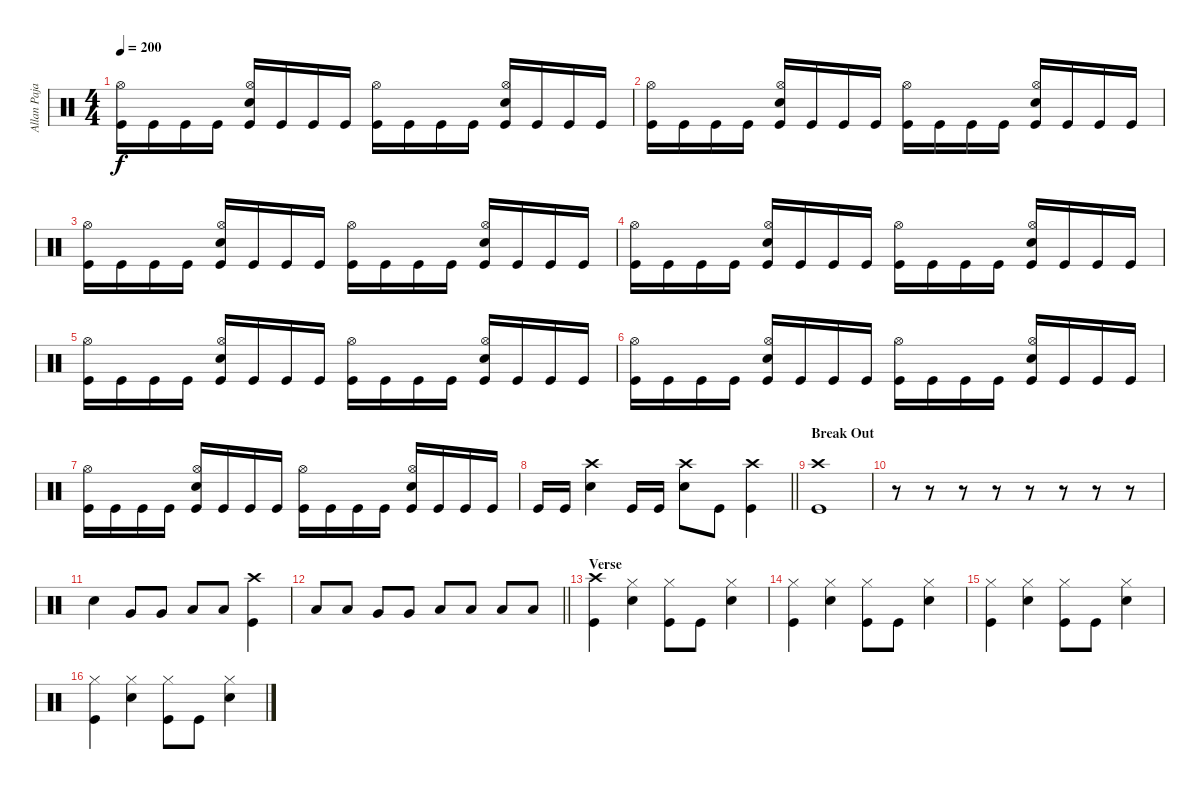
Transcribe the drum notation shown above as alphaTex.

\track ("Allan Pajarin (Drums)" "Allan Paja") {instrument percussion}
\staff {score}
\articulation defaults
\ts (4 4)
\tempo 200
\clef neutral
\ks c
("Kick (hit)" "Hi-Hat (open)").16{dy f} "Kick (hit)".16 "Kick (hit)".16 "Kick (hit)".16 ("Hi-Hat (open)" "Electric Snare (hit)" "Kick (hit)").16 "Kick (hit)".16 "Kick (hit)".16 "Kick (hit)".16 ("Hi-Hat (open)" "Kick (hit)").16 "Kick (hit)".16 "Kick (hit)".16 "Kick (hit)".16 ("Hi-Hat (open)" "Electric Snare (hit)" "Kick (hit)").16 "Kick (hit)".16 "Kick (hit)".16 "Kick (hit)".16 |
("Kick (hit)" "Hi-Hat (open)").16 "Kick (hit)".16 "Kick (hit)".16 "Kick (hit)".16 ("Hi-Hat (open)" "Electric Snare (hit)" "Kick (hit)").16 "Kick (hit)".16 "Kick (hit)".16 "Kick (hit)".16 ("Hi-Hat (open)" "Kick (hit)").16 "Kick (hit)".16 "Kick (hit)".16 "Kick (hit)".16 ("Hi-Hat (open)" "Electric Snare (hit)" "Kick (hit)").16 "Kick (hit)".16 "Kick (hit)".16 "Kick (hit)".16 |
("Kick (hit)" "Hi-Hat (open)").16 "Kick (hit)".16 "Kick (hit)".16 "Kick (hit)".16 ("Hi-Hat (open)" "Electric Snare (hit)" "Kick (hit)").16 "Kick (hit)".16 "Kick (hit)".16 "Kick (hit)".16 ("Hi-Hat (open)" "Kick (hit)").16 "Kick (hit)".16 "Kick (hit)".16 "Kick (hit)".16 ("Hi-Hat (open)" "Electric Snare (hit)" "Kick (hit)").16 "Kick (hit)".16 "Kick (hit)".16 "Kick (hit)".16 |
("Kick (hit)" "Hi-Hat (open)").16 "Kick (hit)".16 "Kick (hit)".16 "Kick (hit)".16 ("Hi-Hat (open)" "Electric Snare (hit)" "Kick (hit)").16 "Kick (hit)".16 "Kick (hit)".16 "Kick (hit)".16 ("Hi-Hat (open)" "Kick (hit)").16 "Kick (hit)".16 "Kick (hit)".16 "Kick (hit)".16 ("Hi-Hat (open)" "Electric Snare (hit)" "Kick (hit)").16 "Kick (hit)".16 "Kick (hit)".16 "Kick (hit)".16 |
("Kick (hit)" "Hi-Hat (open)").16 "Kick (hit)".16 "Kick (hit)".16 "Kick (hit)".16 ("Hi-Hat (open)" "Electric Snare (hit)" "Kick (hit)").16 "Kick (hit)".16 "Kick (hit)".16 "Kick (hit)".16 ("Hi-Hat (open)" "Kick (hit)").16 "Kick (hit)".16 "Kick (hit)".16 "Kick (hit)".16 ("Hi-Hat (open)" "Electric Snare (hit)" "Kick (hit)").16 "Kick (hit)".16 "Kick (hit)".16 "Kick (hit)".16 |
("Kick (hit)" "Hi-Hat (open)").16 "Kick (hit)".16 "Kick (hit)".16 "Kick (hit)".16 ("Hi-Hat (open)" "Electric Snare (hit)" "Kick (hit)").16 "Kick (hit)".16 "Kick (hit)".16 "Kick (hit)".16 ("Hi-Hat (open)" "Kick (hit)").16 "Kick (hit)".16 "Kick (hit)".16 "Kick (hit)".16 ("Hi-Hat (open)" "Electric Snare (hit)" "Kick (hit)").16 "Kick (hit)".16 "Kick (hit)".16 "Kick (hit)".16 |
("Kick (hit)" "Hi-Hat (open)").16 "Kick (hit)".16 "Kick (hit)".16 "Kick (hit)".16 ("Hi-Hat (open)" "Electric Snare (hit)" "Kick (hit)").16 "Kick (hit)".16 "Kick (hit)".16 "Kick (hit)".16 ("Hi-Hat (open)" "Kick (hit)").16 "Kick (hit)".16 "Kick (hit)".16 "Kick (hit)".16 ("Hi-Hat (open)" "Electric Snare (hit)" "Kick (hit)").16 "Kick (hit)".16 "Kick (hit)".16 "Kick (hit)".16 |
\barLineRight lightlight "Kick (hit)".16 "Kick (hit)".16
("Crash high (hit)" "Electric Snare (hit)").4 "Kick (hit)".16 "Kick (hit)".16 ("Crash high (hit)" "Electric Snare (hit)").8 "Kick (hit)".8 ("Crash high (hit)" "Kick (hit)").4 |
\section ("" "Break Out")
("Crash high (hit)" "Kick (hit)").1 |
r.8 r.8 r.8 r.8 r.8 r.8 r.8 r.8 |
"Electric Snare (hit)".4 "Very Low Tom (hit)".8 "Very Low Tom (hit)".8 "Low Floor Tom (hit)".8 "Low Floor Tom (hit)".8 ("Crash high (hit)" "Kick (hit)").4 |
\barLineRight lightlight "Low Tom (hit)".8 "Low Tom (hit)".8 "Very Low Tom (hit)".8 "Very Low Tom (hit)".8 "Low Floor Tom (hit)".8 "Low Floor Tom (hit)".8 "Low Floor Tom (hit)".8 "Low Floor Tom (hit)".8
|
\section ("" "Verse")
("Crash high (hit)" "Kick (hit)").4 ("Hi-Hat (closed)" "Electric Snare (hit)").4 ("Hi-Hat (closed)" "Kick (hit)").8 "Kick (hit)".8 ("Hi-Hat (closed)" "Electric Snare (hit)").4 |
("Hi-Hat (closed)" "Kick (hit)").4 ("Hi-Hat (closed)" "Electric Snare (hit)").4 ("Hi-Hat (closed)" "Kick (hit)").8 "Kick (hit)".8 ("Hi-Hat (closed)" "Electric Snare (hit)").4 |
("Hi-Hat (closed)" "Kick (hit)").4 ("Hi-Hat (closed)" "Electric Snare (hit)").4 ("Hi-Hat (closed)" "Kick (hit)").8 "Kick (hit)".8 ("Hi-Hat (closed)" "Electric Snare (hit)").4 |
("Hi-Hat (closed)" "Kick (hit)").4 ("Hi-Hat (closed)" "Electric Snare (hit)").4 ("Hi-Hat (closed)" "Kick (hit)").8 "Kick (hit)".8 ("Hi-Hat (closed)" "Electric Snare (hit)").4
